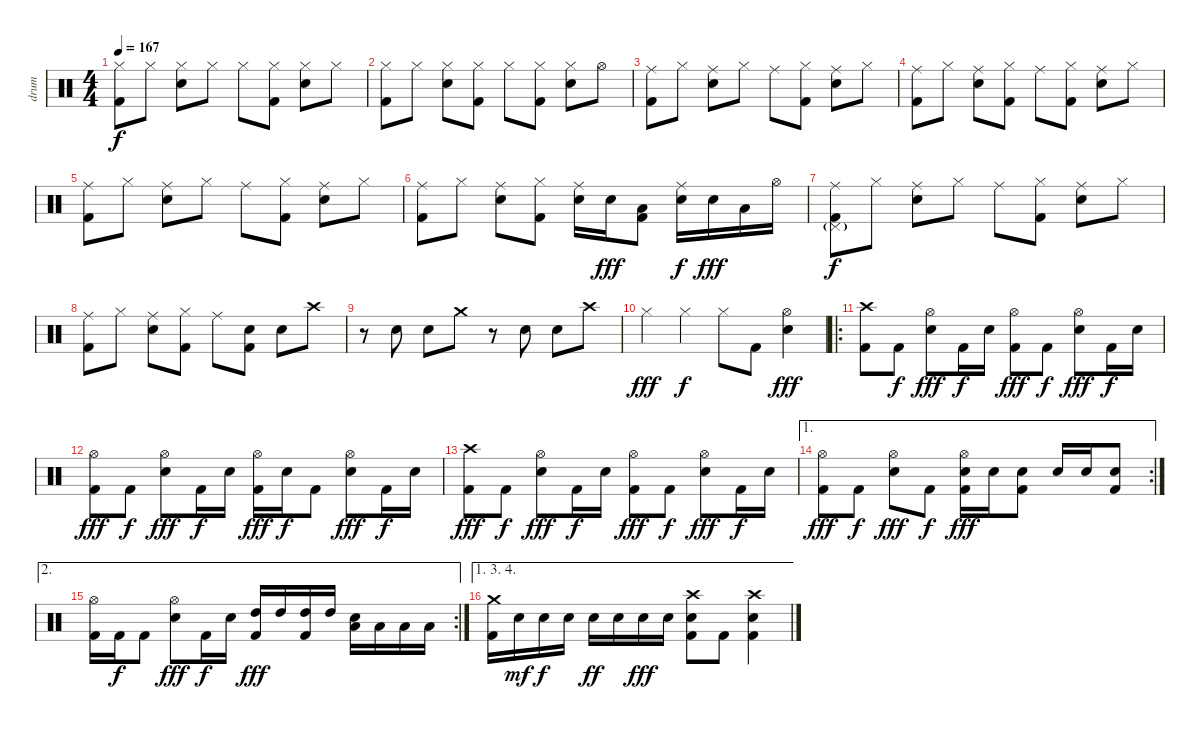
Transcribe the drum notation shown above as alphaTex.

\track ("drum" "drum") {instrument percussion}
\staff {score}
\articulation defaults
\ts (4 4)
\tempo 167
\clef neutral
\ks c
("Hi-Hat (closed)" "Kick (hit) 2").8{dy f} "Hi-Hat (closed)".8 ("Hi-Hat (closed)" "Snare (hit) 2").8 "Hi-Hat (closed)".8 "Hi-Hat (closed)".8 ("Hi-Hat (closed)" "Kick (hit) 2").8 ("Hi-Hat (closed)" "Snare (hit) 2").8 "Hi-Hat (closed)".8 |
("Hi-Hat (closed)" "Kick (hit) 2").8 "Hi-Hat (closed)".8 ("Hi-Hat (closed)" "Snare (hit) 2").8 ("Hi-Hat (closed)" "Kick (hit) 2").8 "Hi-Hat (closed)".8 ("Hi-Hat (closed)" "Kick (hit) 2").8 ("Hi-Hat (closed)" "Snare (hit) 2").8 "Hi-Hat (open)".8 |
("Ride (middle)" "Kick (hit) 2").8 "Hi-Hat (closed)".8 ("Ride (middle)" "Snare (hit) 2").8 "Hi-Hat (closed)".8 "Ride (middle)".8 ("Hi-Hat (closed)" "Kick (hit) 2").8 ("Ride (middle)" "Snare (hit) 2").8 "Hi-Hat (closed)".8 |
("Ride (middle)" "Kick (hit) 2").8 "Hi-Hat (closed)".8 ("Ride (middle)" "Snare (hit) 2").8 ("Hi-Hat (closed)" "Kick (hit) 2").8 "Ride (middle)".8 ("Hi-Hat (closed)" "Kick (hit) 2").8 ("Ride (middle)" "Snare (hit) 2").8 "Hi-Hat (closed)".8 |
("Ride (middle)" "Kick (hit) 2").8 "Hi-Hat (closed)".8 ("Ride (middle)" "Snare (hit) 2").8 "Hi-Hat (closed)".8 "Ride (middle)".8 ("Hi-Hat (closed)" "Kick (hit) 2").8 ("Ride (middle)" "Snare (hit) 2").8 "Hi-Hat (closed)".8 |
("Ride (middle)" "Kick (hit) 2").8 "Hi-Hat (closed)".8 ("Ride (middle)" "Snare (hit) 2").8 ("Hi-Hat (closed)" "Kick (hit) 2").8 ("Ride (middle)" "Snare (hit) 2").16 "Snare (hit) 2".16{dy fff} ("Low Tom (hit)" "Kick (hit) 2").8 ("Ride (middle)" "Snare (hit) 2").16{dy f} "Snare (hit) 2".16{dy fff} "Low Tom (hit)".16 "Hi-Hat (open)".16 |
("Ride (middle)" "Pedal Hi-Hat (hit)"{g} "Kick (hit) 2").8{dy f} "Hi-Hat (closed)".8 ("Ride (middle)" "Snare (hit) 2").8 "Hi-Hat (closed)".8 "Ride (middle)".8 ("Hi-Hat (closed)" "Kick (hit) 2").8 ("Ride (middle)" "Snare (hit) 2").8 "Hi-Hat (closed)".8 |
("Ride (middle)" "Kick (hit) 2").8 "Hi-Hat (closed)".8 ("Ride (middle)" "Snare (hit) 2").8 ("Hi-Hat (closed)" "Kick (hit) 2").8 "Ride (middle)".8 ("Snare (hit) 2" "Kick (hit) 2").8 "Snare (hit) 2".8 "Crash high (hit)".8 |
r.8 "Snare (hit) 2".8 "Snare (hit) 2".8 "Crash medium (hit)".8 r.8 "Snare (hit) 2".8 "Snare (hit) 2".8 "Crash high (hit)".8 |
"Hi-Hat (closed)".4{dy fff} "Hi-Hat (closed)".4{dy f} "Hi-Hat (closed)".8 "Kick (hit) 2".8 ("Hi-Hat (open)" "Snare (hit) 2").4{dy fff} |
\ro
("Crash high (hit)" "Kick (hit) 2").8 "Kick (hit) 2".8{dy f} ("Hi-Hat (open)" "Snare (hit) 2").8{dy fff} "Kick (hit) 2".16{dy f} "Snare (hit) 2".16 ("Hi-Hat (open)" "Kick (hit) 2").8{dy fff} "Kick (hit) 2".8{dy f} ("Hi-Hat (open)" "Snare (hit) 2").8{dy fff} "Kick (hit) 2".16{dy f} "Snare (hit) 2".16 |
("Hi-Hat (open)" "Kick (hit) 2").8{dy fff} "Kick (hit) 2".8{dy f} ("Hi-Hat (open)" "Snare (hit) 2").8{dy fff} "Kick (hit) 2".16{dy f} "Snare (hit) 2".16 ("Hi-Hat (open)" "Kick (hit) 2").16{dy fff} "Snare (hit) 2".16{dy f} "Kick (hit) 2".8 ("Hi-Hat (open)" "Snare (hit) 2").8{dy fff} "Kick (hit) 2".16{dy f} "Snare (hit) 2".16 |
("Crash high (hit)" "Kick (hit) 2").8{dy fff} "Kick (hit) 2".8{dy f} ("Hi-Hat (open)" "Snare (hit) 2").8{dy fff} "Kick (hit) 2".16{dy f} "Snare (hit) 2".16 ("Hi-Hat (open)" "Kick (hit) 2").8{dy fff} "Kick (hit) 2".8{dy f} ("Hi-Hat (open)" "Snare (hit) 2").8{dy fff} "Kick (hit) 2".16{dy f} "Snare (hit) 2".16 |
\ae 1
\rc 2
("Hi-Hat (open)" "Kick (hit) 2").8{dy fff} "Kick (hit) 2".8{dy f} ("Hi-Hat (open)" "Snare (hit) 2").8{dy fff} "Kick (hit) 2".8{dy f} ("Hi-Hat (open)" "Snare (hit) 2" "Kick (hit) 2").16{dy fff} "Snare (hit) 2".16 ("Snare (hit) 2" "Kick (hit) 2").8 "Snare (hit) 2".16 "Snare (hit) 2".16 ("Snare (hit) 2" "Kick (hit) 2").8 |
\ae 2
\rc 2
("Hi-Hat (open)" "Kick (hit) 2").16 "Kick (hit) 2".16{dy f} "Kick (hit) 2".8 ("Hi-Hat (open)" "Snare (hit) 2").8{dy fff} "Kick (hit) 2".16{dy f} "Snare (hit) 2".16 ("High Tom (hit)" "Kick (hit) 2").16{dy fff} "High Tom (hit)".16 ("High Tom (hit)" "Kick (hit) 2").16 "High Tom (hit)".16 ("Low Tom (hit)" "Snare (hit) 2").16 "Low Tom (hit)".16 "Low Tom (hit)".16 "Low Tom (hit)".16 |
\ae (1 3 4)
("Crash medium (hit)" "Kick (hit) 2").16 "Snare (hit) 2".16{dy mf} "Snare (hit) 2".16{dy f} "Snare (hit) 2".16 "Snare (hit) 2".16{dy ff} "Snare (hit) 2".16 "Snare (hit) 2".16{dy fff} "Snare (hit) 2".16 ("Crash high (hit)" "Snare (hit) 2" "Kick (hit) 2").8 "Kick (hit) 2".8 ("Crash high (hit)" "Snare (hit) 2" "Kick (hit) 2").4
